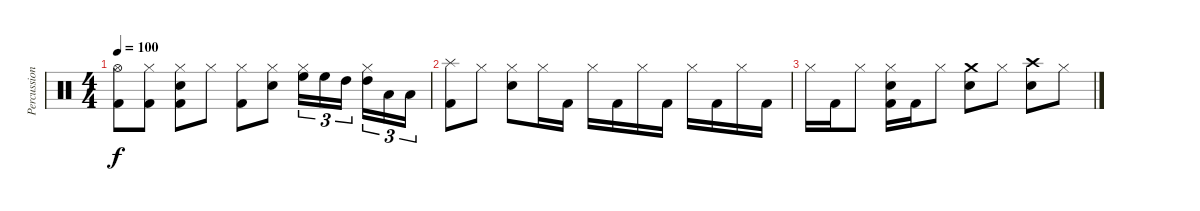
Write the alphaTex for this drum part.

\track ("Percussions" "Percussion") {instrument percussion}
\staff {score}
\articulation defaults
\ts (4 4)
\tempo 100
\clef neutral
\ks c
("Hi-Hat (open)" "Kick (hit) 2").8{dy f} ("Hi-Hat (closed)" "Kick (hit) 2").8 ("Hi-Hat (closed)" "Snare (hit) 2" "Kick (hit) 2").8 "Hi-Hat (closed)".8 ("Hi-Hat (closed)" "Kick (hit) 2").8 ("Hi-Hat (closed)" "Electric Snare (hit)").8 ("Hi-Hat (closed)" "High Floor Tom (hit)").16{tu (3 2)} "High Floor Tom (hit)".16{tu (3 2)} "High Tom (hit)".16{tu (3 2)} ("Hi-Hat (closed)" "High Tom (hit)").16{tu (3 2)} "Low Tom (hit)".16{tu (3 2)} "Low Tom (hit)".16{tu (3 2)} |
("Splash (hit)" "Kick (hit) 2").8 "Hi-Hat (closed)".8 ("Hi-Hat (closed)" "Snare (hit) 2").8 "Hi-Hat (closed)".16 "Kick (hit) 2".16 "Hi-Hat (closed)".16 "Kick (hit) 2".16 "Hi-Hat (closed)".16 "Kick (hit) 2".16 "Hi-Hat (closed)".16 "Kick (hit) 2".16 "Hi-Hat (closed)".16 "Kick (hit) 2".16 |
"Hi-Hat (closed)".16 "Kick (hit) 2".16 "Hi-Hat (closed)".8 ("Hi-Hat (closed)" "Snare (hit) 2" "Kick (hit) 2").16 "Kick (hit) 2".16 "Hi-Hat (closed)".8 ("Crash medium (hit)" "Electric Snare (hit)").8 "Hi-Hat (closed)".8 ("Crash high (hit)" "Snare (hit) 2").8 "Hi-Hat (closed)".8
